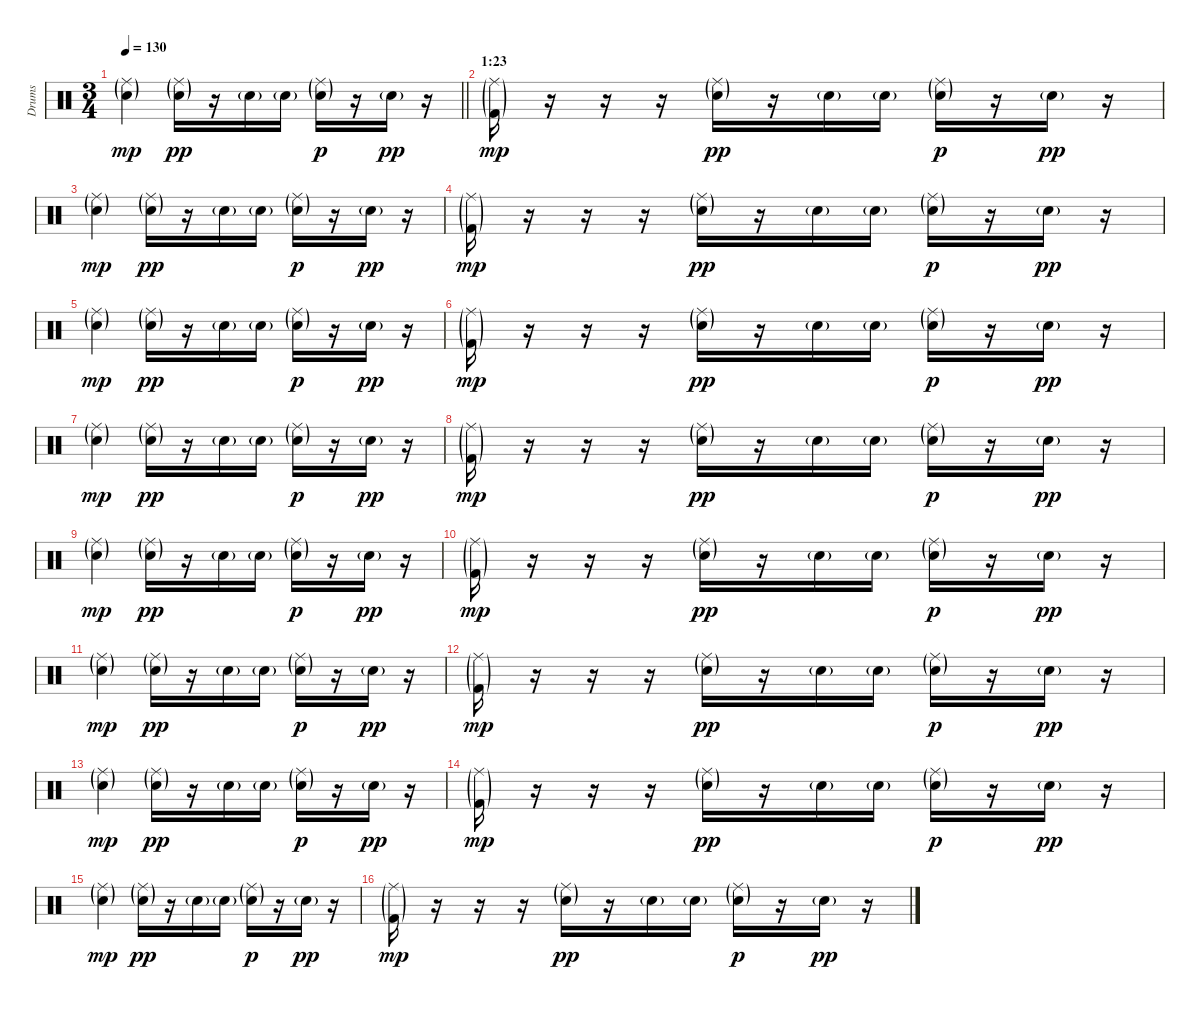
\track ("Drums" "Drums") {instrument percussion}
\staff {score}
\articulation defaults
\ts (3 4)
\tempo 130
\clef neutral
\barLineRight lightlight
\ks c
("Ride (middle)"{g} "Electric Snare (hit)"{g}).4{dy mp} ("Ride (middle)"{g} "Electric Snare (hit)"{g}).16{dy pp} r.16 "Electric Snare (hit)"{g}.16 "Electric Snare (hit)"{g}.16 ("Ride (middle)"{g} "Electric Snare (hit)"{g}).16{dy p} r.16 "Electric Snare (hit)"{g}.16{dy pp} r.16 |
\section ("" "1:23")
("Ride (middle)"{g} "Kick (hit) 2"{g}).16{dy mp} r.16 r.16 r.16 ("Ride (middle)"{g} "Electric Snare (hit)"{g}).16{dy pp} r.16 "Electric Snare (hit)"{g}.16 "Electric Snare (hit)"{g}.16 ("Ride (middle)"{g} "Electric Snare (hit)"{g}).16{dy p} r.16 "Electric Snare (hit)"{g}.16{dy pp} r.16 |
("Ride (middle)"{g} "Electric Snare (hit)"{g}).4{dy mp} ("Ride (middle)"{g} "Electric Snare (hit)"{g}).16{dy pp} r.16 "Electric Snare (hit)"{g}.16 "Electric Snare (hit)"{g}.16 ("Ride (middle)"{g} "Electric Snare (hit)"{g}).16{dy p} r.16 "Electric Snare (hit)"{g}.16{dy pp} r.16 |
("Ride (middle)"{g} "Kick (hit) 2"{g}).16{dy mp} r.16 r.16 r.16 ("Ride (middle)"{g} "Electric Snare (hit)"{g}).16{dy pp} r.16 "Electric Snare (hit)"{g}.16 "Electric Snare (hit)"{g}.16 ("Ride (middle)"{g} "Electric Snare (hit)"{g}).16{dy p} r.16 "Electric Snare (hit)"{g}.16{dy pp} r.16 |
("Ride (middle)"{g} "Electric Snare (hit)"{g}).4{dy mp} ("Ride (middle)"{g} "Electric Snare (hit)"{g}).16{dy pp} r.16 "Electric Snare (hit)"{g}.16 "Electric Snare (hit)"{g}.16 ("Ride (middle)"{g} "Electric Snare (hit)"{g}).16{dy p} r.16 "Electric Snare (hit)"{g}.16{dy pp} r.16 |
("Ride (middle)"{g} "Kick (hit) 2"{g}).16{dy mp} r.16 r.16 r.16 ("Ride (middle)"{g} "Electric Snare (hit)"{g}).16{dy pp} r.16 "Electric Snare (hit)"{g}.16 "Electric Snare (hit)"{g}.16 ("Ride (middle)"{g} "Electric Snare (hit)"{g}).16{dy p} r.16 "Electric Snare (hit)"{g}.16{dy pp} r.16 |
("Ride (middle)"{g} "Electric Snare (hit)"{g}).4{dy mp} ("Ride (middle)"{g} "Electric Snare (hit)"{g}).16{dy pp} r.16 "Electric Snare (hit)"{g}.16 "Electric Snare (hit)"{g}.16 ("Ride (middle)"{g} "Electric Snare (hit)"{g}).16{dy p} r.16 "Electric Snare (hit)"{g}.16{dy pp} r.16 |
("Ride (middle)"{g} "Kick (hit) 2"{g}).16{dy mp} r.16 r.16 r.16 ("Ride (middle)"{g} "Electric Snare (hit)"{g}).16{dy pp} r.16 "Electric Snare (hit)"{g}.16 "Electric Snare (hit)"{g}.16 ("Ride (middle)"{g} "Electric Snare (hit)"{g}).16{dy p} r.16 "Electric Snare (hit)"{g}.16{dy pp} r.16 |
("Ride (middle)"{g} "Electric Snare (hit)"{g}).4{dy mp} ("Ride (middle)"{g} "Electric Snare (hit)"{g}).16{dy pp} r.16 "Electric Snare (hit)"{g}.16 "Electric Snare (hit)"{g}.16 ("Ride (middle)"{g} "Electric Snare (hit)"{g}).16{dy p} r.16 "Electric Snare (hit)"{g}.16{dy pp} r.16 |
("Ride (middle)"{g} "Kick (hit) 2"{g}).16{dy mp} r.16 r.16 r.16 ("Ride (middle)"{g} "Electric Snare (hit)"{g}).16{dy pp} r.16 "Electric Snare (hit)"{g}.16 "Electric Snare (hit)"{g}.16 ("Ride (middle)"{g} "Electric Snare (hit)"{g}).16{dy p} r.16 "Electric Snare (hit)"{g}.16{dy pp} r.16 |
("Ride (middle)"{g} "Electric Snare (hit)"{g}).4{dy mp} ("Ride (middle)"{g} "Electric Snare (hit)"{g}).16{dy pp} r.16 "Electric Snare (hit)"{g}.16 "Electric Snare (hit)"{g}.16 ("Ride (middle)"{g} "Electric Snare (hit)"{g}).16{dy p} r.16 "Electric Snare (hit)"{g}.16{dy pp} r.16 |
("Ride (middle)"{g} "Kick (hit) 2"{g}).16{dy mp} r.16 r.16 r.16 ("Ride (middle)"{g} "Electric Snare (hit)"{g}).16{dy pp} r.16 "Electric Snare (hit)"{g}.16 "Electric Snare (hit)"{g}.16 ("Ride (middle)"{g} "Electric Snare (hit)"{g}).16{dy p} r.16 "Electric Snare (hit)"{g}.16{dy pp} r.16 |
("Ride (middle)"{g} "Electric Snare (hit)"{g}).4{dy mp} ("Ride (middle)"{g} "Electric Snare (hit)"{g}).16{dy pp} r.16 "Electric Snare (hit)"{g}.16 "Electric Snare (hit)"{g}.16 ("Ride (middle)"{g} "Electric Snare (hit)"{g}).16{dy p} r.16 "Electric Snare (hit)"{g}.16{dy pp} r.16 |
("Ride (middle)"{g} "Kick (hit) 2"{g}).16{dy mp} r.16 r.16 r.16 ("Ride (middle)"{g} "Electric Snare (hit)"{g}).16{dy pp} r.16 "Electric Snare (hit)"{g}.16 "Electric Snare (hit)"{g}.16 ("Ride (middle)"{g} "Electric Snare (hit)"{g}).16{dy p} r.16 "Electric Snare (hit)"{g}.16{dy pp} r.16 |
("Ride (middle)"{g} "Electric Snare (hit)"{g}).4{dy mp} ("Ride (middle)"{g} "Electric Snare (hit)"{g}).16{dy pp} r.16 "Electric Snare (hit)"{g}.16 "Electric Snare (hit)"{g}.16 ("Ride (middle)"{g} "Electric Snare (hit)"{g}).16{dy p} r.16 "Electric Snare (hit)"{g}.16{dy pp} r.16 |
("Ride (middle)"{g} "Kick (hit) 2"{g}).16{dy mp} r.16 r.16 r.16 ("Ride (middle)"{g} "Electric Snare (hit)"{g}).16{dy pp} r.16 "Electric Snare (hit)"{g}.16 "Electric Snare (hit)"{g}.16 ("Ride (middle)"{g} "Electric Snare (hit)"{g}).16{dy p} r.16 "Electric Snare (hit)"{g}.16{dy pp} r.16
